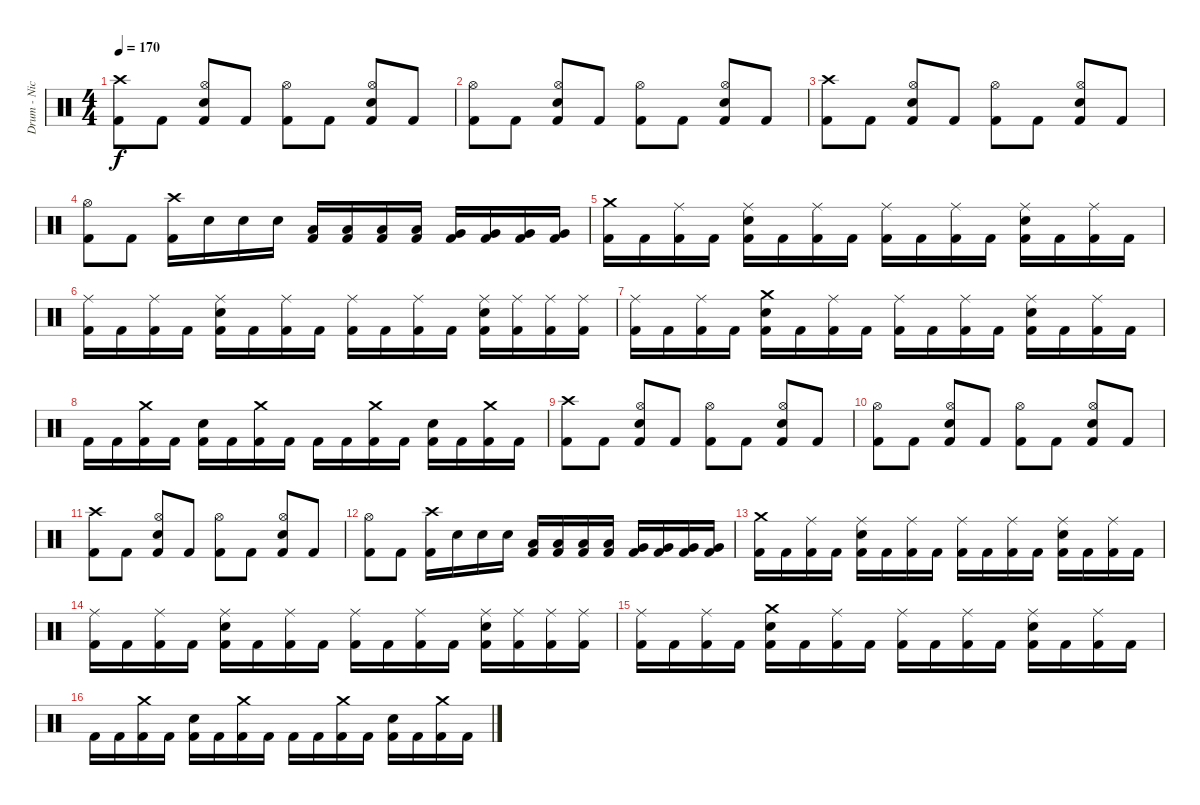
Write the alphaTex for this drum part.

\track ("Drum - Nicholas" "Drum - Nic") {instrument percussion}
\staff {score}
\articulation defaults
\ts (4 4)
\tempo 170
\clef neutral
\ks c
("Crash high (hit)" "Kick (hit) 2").8{dy f} "Kick (hit) 2".8 ("Hi-Hat (open)" "Snare (hit) 2" "Kick (hit) 2").8 "Kick (hit) 2".8 ("Hi-Hat (open)" "Kick (hit) 2").8 "Kick (hit) 2".8 ("Hi-Hat (open)" "Snare (hit) 2" "Kick (hit) 2").8 "Kick (hit) 2".8 |
("Hi-Hat (open)" "Kick (hit) 2").8 "Kick (hit) 2".8 ("Hi-Hat (open)" "Snare (hit) 2" "Kick (hit) 2").8 "Kick (hit) 2".8 ("Hi-Hat (open)" "Kick (hit) 2").8 "Kick (hit) 2".8 ("Hi-Hat (open)" "Snare (hit) 2" "Kick (hit) 2").8 "Kick (hit) 2".8 |
("Crash high (hit)" "Kick (hit) 2").8 "Kick (hit) 2".8 ("Hi-Hat (open)" "Snare (hit) 2" "Kick (hit) 2").8 "Kick (hit) 2".8 ("Hi-Hat (open)" "Kick (hit) 2").8 "Kick (hit) 2".8 ("Hi-Hat (open)" "Snare (hit) 2" "Kick (hit) 2").8 "Kick (hit) 2".8 |
("Hi-Hat (open)" "Kick (hit) 2").8 "Kick (hit) 2".8 ("Crash high (hit)" "Kick (hit) 2").16 "Snare (hit) 2".16 "Snare (hit) 2".16 "Snare (hit) 2".16 ("Low Tom (hit)" "Kick (hit) 2").16 ("Low Tom (hit)" "Kick (hit) 2").16 ("Low Tom (hit)" "Kick (hit) 2").16 ("Low Tom (hit)" "Kick (hit) 2").16 ("Very Low Tom (hit)" "Kick (hit) 2").16 ("Very Low Tom (hit)" "Kick (hit) 2").16 ("Very Low Tom (hit)" "Kick (hit) 2").16 ("Very Low Tom (hit)" "Kick (hit) 2").16 |
("Crash medium (hit)" "Kick (hit) 2").16 "Kick (hit) 2".16 ("Ride (middle)" "Kick (hit) 2").16 "Kick (hit) 2".16 ("Ride (middle)" "Snare (hit) 2" "Kick (hit) 2").16 "Kick (hit) 2".16 ("Ride (middle)" "Kick (hit) 2").16 "Kick (hit) 2".16 ("Ride (middle)" "Kick (hit) 2").16 "Kick (hit) 2".16 ("Ride (middle)" "Kick (hit) 2").16 "Kick (hit) 2".16 ("Ride (middle)" "Snare (hit) 2" "Kick (hit) 2").16 "Kick (hit) 2".16 ("Ride (middle)" "Kick (hit) 2").16 "Kick (hit) 2".16 |
("Ride (middle)" "Kick (hit) 2").16 "Kick (hit) 2".16 ("Ride (middle)" "Kick (hit) 2").16 "Kick (hit) 2".16 ("Ride (middle)" "Snare (hit) 2" "Kick (hit) 2").16 "Kick (hit) 2".16 ("Ride (middle)" "Kick (hit) 2").16 "Kick (hit) 2".16 ("Ride (middle)" "Kick (hit) 2").16 "Kick (hit) 2".16 ("Ride (middle)" "Kick (hit) 2").16 "Kick (hit) 2".16 ("Ride (middle)" "Snare (hit) 2" "Kick (hit) 2").16 ("Ride (middle)" "Kick (hit) 2").16 ("Ride (middle)" "Kick (hit) 2").16 ("Ride (middle)" "Kick (hit) 2").16 |
("Ride (middle)" "Kick (hit) 2").16 "Kick (hit) 2".16 ("Ride (middle)" "Kick (hit) 2").16 "Kick (hit) 2".16 ("Crash medium (hit)" "Snare (hit) 2" "Kick (hit) 2").16 "Kick (hit) 2".16 ("Ride (middle)" "Kick (hit) 2").16 "Kick (hit) 2".16 ("Ride (middle)" "Kick (hit) 2").16 "Kick (hit) 2".16 ("Ride (middle)" "Kick (hit) 2").16 "Kick (hit) 2".16 ("Ride (middle)" "Snare (hit) 2" "Kick (hit) 2").16 "Kick (hit) 2".16 ("Ride (middle)" "Kick (hit) 2").16 "Kick (hit) 2".16 |
"Kick (hit) 2".16 "Kick (hit) 2".16 ("Crash medium (hit)" "Kick (hit) 2").16 "Kick (hit) 2".16 ("Snare (hit) 2" "Kick (hit) 2").16 "Kick (hit) 2".16 ("Crash medium (hit)" "Kick (hit) 2").16 "Kick (hit) 2".16 "Kick (hit) 2".16 "Kick (hit) 2".16 ("Crash medium (hit)" "Kick (hit) 2").16 "Kick (hit) 2".16 ("Snare (hit) 2" "Kick (hit) 2").16 "Kick (hit) 2".16 ("Crash medium (hit)" "Kick (hit) 2").16 "Kick (hit) 2".16 |
("Crash high (hit)" "Kick (hit) 2").8 "Kick (hit) 2".8 ("Hi-Hat (open)" "Snare (hit) 2" "Kick (hit) 2").8 "Kick (hit) 2".8 ("Hi-Hat (open)" "Kick (hit) 2").8 "Kick (hit) 2".8 ("Hi-Hat (open)" "Snare (hit) 2" "Kick (hit) 2").8 "Kick (hit) 2".8 |
("Hi-Hat (open)" "Kick (hit) 2").8 "Kick (hit) 2".8 ("Hi-Hat (open)" "Snare (hit) 2" "Kick (hit) 2").8 "Kick (hit) 2".8 ("Hi-Hat (open)" "Kick (hit) 2").8 "Kick (hit) 2".8 ("Hi-Hat (open)" "Snare (hit) 2" "Kick (hit) 2").8 "Kick (hit) 2".8 |
("Crash high (hit)" "Kick (hit) 2").8 "Kick (hit) 2".8 ("Hi-Hat (open)" "Snare (hit) 2" "Kick (hit) 2").8 "Kick (hit) 2".8 ("Hi-Hat (open)" "Kick (hit) 2").8 "Kick (hit) 2".8 ("Hi-Hat (open)" "Snare (hit) 2" "Kick (hit) 2").8 "Kick (hit) 2".8 |
("Hi-Hat (open)" "Kick (hit) 2").8 "Kick (hit) 2".8 ("Crash high (hit)" "Kick (hit) 2").16 "Snare (hit) 2".16 "Snare (hit) 2".16 "Snare (hit) 2".16 ("Low Tom (hit)" "Kick (hit) 2").16 ("Low Tom (hit)" "Kick (hit) 2").16 ("Low Tom (hit)" "Kick (hit) 2").16 ("Low Tom (hit)" "Kick (hit) 2").16 ("Very Low Tom (hit)" "Kick (hit) 2").16 ("Very Low Tom (hit)" "Kick (hit) 2").16 ("Very Low Tom (hit)" "Kick (hit) 2").16 ("Very Low Tom (hit)" "Kick (hit) 2").16 |
("Crash medium (hit)" "Kick (hit) 2").16 "Kick (hit) 2".16 ("Ride (middle)" "Kick (hit) 2").16 "Kick (hit) 2".16 ("Ride (middle)" "Snare (hit) 2" "Kick (hit) 2").16 "Kick (hit) 2".16 ("Ride (middle)" "Kick (hit) 2").16 "Kick (hit) 2".16 ("Ride (middle)" "Kick (hit) 2").16 "Kick (hit) 2".16 ("Ride (middle)" "Kick (hit) 2").16 "Kick (hit) 2".16 ("Ride (middle)" "Snare (hit) 2" "Kick (hit) 2").16 "Kick (hit) 2".16 ("Ride (middle)" "Kick (hit) 2").16 "Kick (hit) 2".16 |
("Ride (middle)" "Kick (hit) 2").16 "Kick (hit) 2".16 ("Ride (middle)" "Kick (hit) 2").16 "Kick (hit) 2".16 ("Ride (middle)" "Snare (hit) 2" "Kick (hit) 2").16 "Kick (hit) 2".16 ("Ride (middle)" "Kick (hit) 2").16 "Kick (hit) 2".16 ("Ride (middle)" "Kick (hit) 2").16 "Kick (hit) 2".16 ("Ride (middle)" "Kick (hit) 2").16 "Kick (hit) 2".16 ("Ride (middle)" "Snare (hit) 2" "Kick (hit) 2").16 ("Ride (middle)" "Kick (hit) 2").16 ("Ride (middle)" "Kick (hit) 2").16 ("Ride (middle)" "Kick (hit) 2").16 |
("Ride (middle)" "Kick (hit) 2").16 "Kick (hit) 2".16 ("Ride (middle)" "Kick (hit) 2").16 "Kick (hit) 2".16 ("Crash medium (hit)" "Snare (hit) 2" "Kick (hit) 2").16 "Kick (hit) 2".16 ("Ride (middle)" "Kick (hit) 2").16 "Kick (hit) 2".16 ("Ride (middle)" "Kick (hit) 2").16 "Kick (hit) 2".16 ("Ride (middle)" "Kick (hit) 2").16 "Kick (hit) 2".16 ("Ride (middle)" "Snare (hit) 2" "Kick (hit) 2").16 "Kick (hit) 2".16 ("Ride (middle)" "Kick (hit) 2").16 "Kick (hit) 2".16 |
"Kick (hit) 2".16 "Kick (hit) 2".16 ("Crash medium (hit)" "Kick (hit) 2").16 "Kick (hit) 2".16 ("Snare (hit) 2" "Kick (hit) 2").16 "Kick (hit) 2".16 ("Crash medium (hit)" "Kick (hit) 2").16 "Kick (hit) 2".16 "Kick (hit) 2".16 "Kick (hit) 2".16 ("Crash medium (hit)" "Kick (hit) 2").16 "Kick (hit) 2".16 ("Snare (hit) 2" "Kick (hit) 2").16 "Kick (hit) 2".16 ("Crash medium (hit)" "Kick (hit) 2").16 "Kick (hit) 2".16
